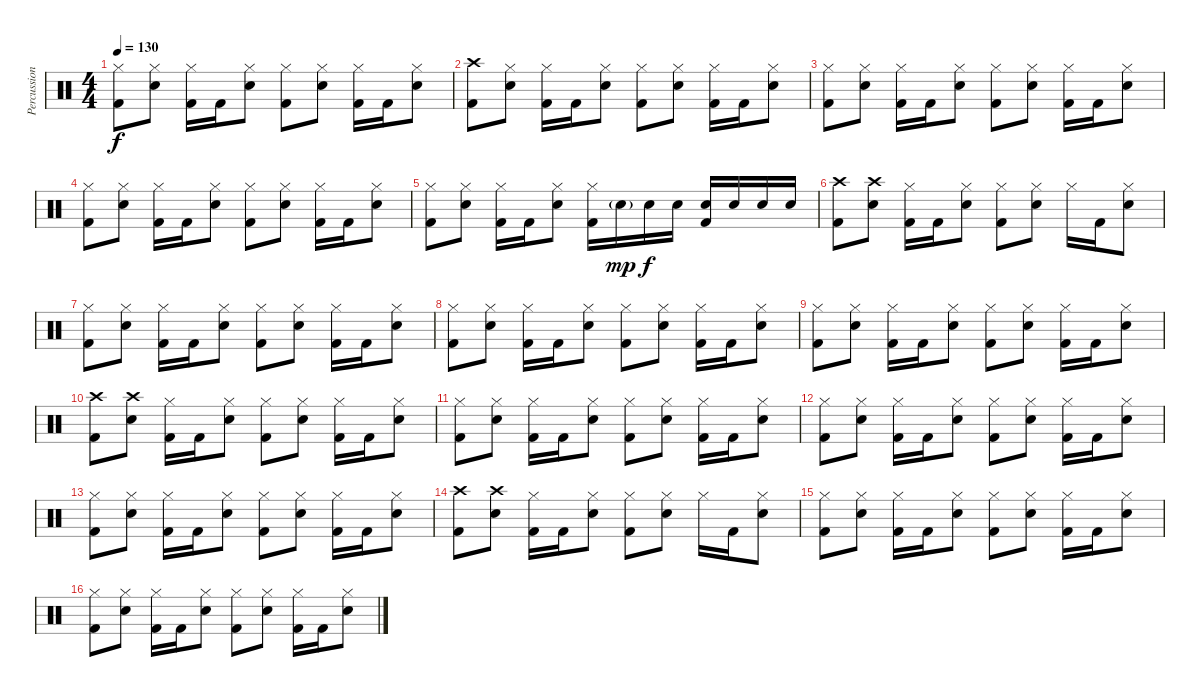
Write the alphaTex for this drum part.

\track ("Percussion" "Percussion") {instrument percussion}
\staff {score}
\articulation defaults
\ts (4 4)
\tempo 130
\clef neutral
\ks c
("Hi-Hat (closed)" "Kick (hit) 2").8{dy f} ("Hi-Hat (closed)" "Electric Snare (hit)").8 ("Hi-Hat (closed)" "Kick (hit) 2").16 "Kick (hit) 2".16 ("Hi-Hat (closed)" "Electric Snare (hit)").8 ("Hi-Hat (closed)" "Kick (hit) 2").8 ("Hi-Hat (closed)" "Electric Snare (hit)").8 ("Hi-Hat (closed)" "Kick (hit) 2").16 "Kick (hit) 2".16 ("Hi-Hat (closed)" "Electric Snare (hit)").8 |
("Crash high (hit)" "Kick (hit) 2").8 ("Hi-Hat (closed)" "Electric Snare (hit)").8 ("Hi-Hat (closed)" "Kick (hit) 2").16 "Kick (hit) 2".16 ("Hi-Hat (closed)" "Electric Snare (hit)").8 ("Hi-Hat (closed)" "Kick (hit) 2").8 ("Hi-Hat (closed)" "Electric Snare (hit)").8 ("Hi-Hat (closed)" "Kick (hit) 2").16 "Kick (hit) 2".16 ("Hi-Hat (closed)" "Electric Snare (hit)").8 |
("Hi-Hat (closed)" "Kick (hit) 2").8 ("Hi-Hat (closed)" "Electric Snare (hit)").8 ("Hi-Hat (closed)" "Kick (hit) 2").16 "Kick (hit) 2".16 ("Hi-Hat (closed)" "Electric Snare (hit)").8 ("Hi-Hat (closed)" "Kick (hit) 2").8 ("Hi-Hat (closed)" "Electric Snare (hit)").8 ("Hi-Hat (closed)" "Kick (hit) 2").16 "Kick (hit) 2".16 ("Hi-Hat (closed)" "Electric Snare (hit)").8 |
("Hi-Hat (closed)" "Kick (hit) 2").8 ("Hi-Hat (closed)" "Electric Snare (hit)").8 ("Hi-Hat (closed)" "Kick (hit) 2").16 "Kick (hit) 2".16 ("Hi-Hat (closed)" "Electric Snare (hit)").8 ("Hi-Hat (closed)" "Kick (hit) 2").8 ("Hi-Hat (closed)" "Electric Snare (hit)").8 ("Hi-Hat (closed)" "Kick (hit) 2").16 "Kick (hit) 2".16 ("Hi-Hat (closed)" "Electric Snare (hit)").8 |
("Hi-Hat (closed)" "Kick (hit) 2").8 ("Hi-Hat (closed)" "Electric Snare (hit)").8 ("Hi-Hat (closed)" "Kick (hit) 2").16 "Kick (hit) 2".16 ("Hi-Hat (closed)" "Electric Snare (hit)").8 ("Hi-Hat (closed)" "Kick (hit) 2").16 "Electric Snare (hit)"{g}.16{dy mp} "Electric Snare (hit)".16{dy f} "Electric Snare (hit)".16 ("Electric Snare (hit)" "Kick (hit) 2").16 "Electric Snare (hit)".16 "Electric Snare (hit)".16 "Electric Snare (hit)".16 |
("Crash high (hit)" "Kick (hit) 2").8 ("Crash high (hit)" "Electric Snare (hit)").8 ("Hi-Hat (closed)" "Kick (hit) 2").16 "Kick (hit) 2".16 ("Hi-Hat (closed)" "Electric Snare (hit)").8 ("Hi-Hat (closed)" "Kick (hit) 2").8 ("Hi-Hat (closed)" "Electric Snare (hit)").8 "Hi-Hat (closed)".16 "Kick (hit) 2".16 ("Hi-Hat (closed)" "Electric Snare (hit)").8 |
("Hi-Hat (closed)" "Kick (hit) 2").8 ("Hi-Hat (closed)" "Electric Snare (hit)").8 ("Hi-Hat (closed)" "Kick (hit) 2").16 "Kick (hit) 2".16 ("Hi-Hat (closed)" "Electric Snare (hit)").8 ("Hi-Hat (closed)" "Kick (hit) 2").8 ("Hi-Hat (closed)" "Electric Snare (hit)").8 ("Hi-Hat (closed)" "Kick (hit) 2").16 "Kick (hit) 2".16 ("Hi-Hat (closed)" "Electric Snare (hit)").8 |
("Hi-Hat (closed)" "Kick (hit) 2").8 ("Hi-Hat (closed)" "Electric Snare (hit)").8 ("Hi-Hat (closed)" "Kick (hit) 2").16 "Kick (hit) 2".16 ("Hi-Hat (closed)" "Electric Snare (hit)").8 ("Hi-Hat (closed)" "Kick (hit) 2").8 ("Hi-Hat (closed)" "Electric Snare (hit)").8 ("Hi-Hat (closed)" "Kick (hit) 2").16 "Kick (hit) 2".16 ("Hi-Hat (closed)" "Electric Snare (hit)").8 |
("Hi-Hat (closed)" "Kick (hit) 2").8 ("Hi-Hat (closed)" "Electric Snare (hit)").8 ("Hi-Hat (closed)" "Kick (hit) 2").16 "Kick (hit) 2".16 ("Hi-Hat (closed)" "Electric Snare (hit)").8 ("Hi-Hat (closed)" "Kick (hit) 2").8 ("Hi-Hat (closed)" "Electric Snare (hit)").8 ("Hi-Hat (closed)" "Kick (hit) 2").16 "Kick (hit) 2".16 ("Hi-Hat (closed)" "Electric Snare (hit)").8 |
("Crash high (hit)" "Kick (hit) 2").8 ("Crash high (hit)" "Electric Snare (hit)").8 ("Hi-Hat (closed)" "Kick (hit) 2").16 "Kick (hit) 2".16 ("Hi-Hat (closed)" "Electric Snare (hit)").8 ("Hi-Hat (closed)" "Kick (hit) 2").8 ("Hi-Hat (closed)" "Electric Snare (hit)").8 ("Hi-Hat (closed)" "Kick (hit) 2").16 "Kick (hit) 2".16 ("Hi-Hat (closed)" "Electric Snare (hit)").8 |
("Hi-Hat (closed)" "Kick (hit) 2").8 ("Hi-Hat (closed)" "Electric Snare (hit)").8 ("Hi-Hat (closed)" "Kick (hit) 2").16 "Kick (hit) 2".16 ("Hi-Hat (closed)" "Electric Snare (hit)").8 ("Hi-Hat (closed)" "Kick (hit) 2").8 ("Hi-Hat (closed)" "Electric Snare (hit)").8 ("Hi-Hat (closed)" "Kick (hit) 2").16 "Kick (hit) 2".16 ("Hi-Hat (closed)" "Electric Snare (hit)").8 |
("Hi-Hat (closed)" "Kick (hit) 2").8 ("Hi-Hat (closed)" "Electric Snare (hit)").8 ("Hi-Hat (closed)" "Kick (hit) 2").16 "Kick (hit) 2".16 ("Hi-Hat (closed)" "Electric Snare (hit)").8 ("Hi-Hat (closed)" "Kick (hit) 2").8 ("Hi-Hat (closed)" "Electric Snare (hit)").8 ("Hi-Hat (closed)" "Kick (hit) 2").16 "Kick (hit) 2".16 ("Hi-Hat (closed)" "Electric Snare (hit)").8 |
("Hi-Hat (closed)" "Kick (hit) 2").8 ("Hi-Hat (closed)" "Electric Snare (hit)").8 ("Hi-Hat (closed)" "Kick (hit) 2").16 "Kick (hit) 2".16 ("Hi-Hat (closed)" "Electric Snare (hit)").8 ("Hi-Hat (closed)" "Kick (hit) 2").8 ("Hi-Hat (closed)" "Electric Snare (hit)").8 ("Hi-Hat (closed)" "Kick (hit) 2").16 "Kick (hit) 2".16 ("Hi-Hat (closed)" "Electric Snare (hit)").8 |
("Crash high (hit)" "Kick (hit) 2").8 ("Crash high (hit)" "Electric Snare (hit)").8 ("Hi-Hat (closed)" "Kick (hit) 2").16 "Kick (hit) 2".16 ("Hi-Hat (closed)" "Electric Snare (hit)").8 ("Hi-Hat (closed)" "Kick (hit) 2").8 ("Hi-Hat (closed)" "Electric Snare (hit)").8 "Hi-Hat (closed)".16 "Kick (hit) 2".16 ("Hi-Hat (closed)" "Electric Snare (hit)").8 |
("Hi-Hat (closed)" "Kick (hit) 2").8 ("Hi-Hat (closed)" "Electric Snare (hit)").8 ("Hi-Hat (closed)" "Kick (hit) 2").16 "Kick (hit) 2".16 ("Hi-Hat (closed)" "Electric Snare (hit)").8 ("Hi-Hat (closed)" "Kick (hit) 2").8 ("Hi-Hat (closed)" "Electric Snare (hit)").8 ("Hi-Hat (closed)" "Kick (hit) 2").16 "Kick (hit) 2".16 ("Hi-Hat (closed)" "Electric Snare (hit)").8 |
("Hi-Hat (closed)" "Kick (hit) 2").8 ("Hi-Hat (closed)" "Electric Snare (hit)").8 ("Hi-Hat (closed)" "Kick (hit) 2").16 "Kick (hit) 2".16 ("Hi-Hat (closed)" "Electric Snare (hit)").8 ("Hi-Hat (closed)" "Kick (hit) 2").8 ("Hi-Hat (closed)" "Electric Snare (hit)").8 ("Hi-Hat (closed)" "Kick (hit) 2").16 "Kick (hit) 2".16 ("Hi-Hat (closed)" "Electric Snare (hit)").8
